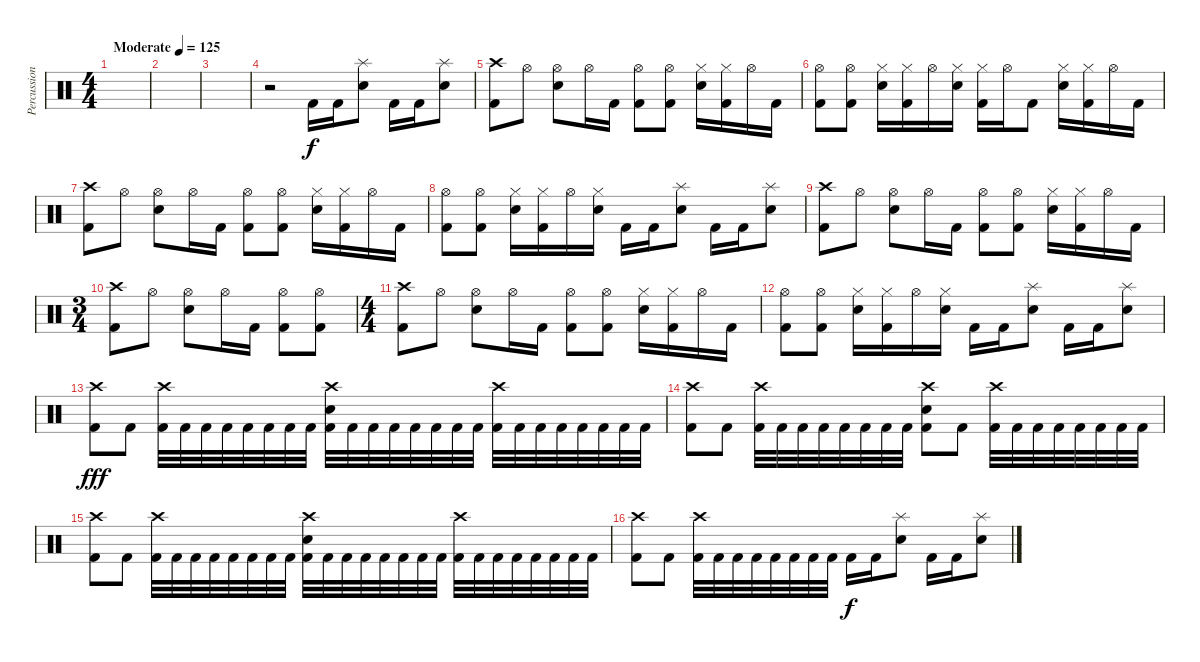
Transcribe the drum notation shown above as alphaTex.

\track ("Percussions" "Percussion") {instrument percussion}
\staff {score}
\articulation defaults
\ts (4 4)
\tempo (125 "Moderate")
\clef neutral
\ks c
|
|
|
r.2 "Kick (hit) 2".16 "Kick (hit) 2".16 ("Splash (hit)" "Electric Snare (hit)").8 "Kick (hit) 2".16 "Kick (hit) 2".16 ("Splash (hit)" "Electric Snare (hit)").8 |
("Crash high (hit)" "Kick (hit) 2").8 "Hi-Hat (open)".8 ("Hi-Hat (open)" "Electric Snare (hit)").8 "Hi-Hat (open)".16 "Kick (hit) 2".16 ("Hi-Hat (open)" "Kick (hit) 2").8 ("Hi-Hat (open)" "Kick (hit) 2").8 ("Hi-Hat (closed)" "Electric Snare (hit)").16 ("Hi-Hat (closed)" "Kick (hit) 2").16 "Hi-Hat (open)".16 "Kick (hit) 2".16 |
("Hi-Hat (open)" "Kick (hit) 2").8 ("Hi-Hat (open)" "Kick (hit) 2").8 ("Hi-Hat (closed)" "Electric Snare (hit)").16 ("Hi-Hat (closed)" "Kick (hit) 2").16 "Hi-Hat (open)".16 ("Hi-Hat (closed)" "Electric Snare (hit)").16 ("Hi-Hat (closed)" "Kick (hit) 2").16 "Hi-Hat (open)".16 "Kick (hit) 2".8 ("Hi-Hat (closed)" "Electric Snare (hit)").16 ("Hi-Hat (closed)" "Kick (hit) 2").16 "Hi-Hat (open)".16 "Kick (hit) 2".16 |
("Crash high (hit)" "Kick (hit) 2").8 "Hi-Hat (open)".8 ("Hi-Hat (open)" "Electric Snare (hit)").8 "Hi-Hat (open)".16 "Kick (hit) 2".16 ("Hi-Hat (open)" "Kick (hit) 2").8 ("Hi-Hat (open)" "Kick (hit) 2").8 ("Hi-Hat (closed)" "Electric Snare (hit)").16 ("Hi-Hat (closed)" "Kick (hit) 2").16 "Hi-Hat (open)".16 "Kick (hit) 2".16 |
("Hi-Hat (open)" "Kick (hit) 2").8 ("Hi-Hat (open)" "Kick (hit) 2").8 ("Hi-Hat (closed)" "Electric Snare (hit)").16 ("Hi-Hat (closed)" "Kick (hit) 2").16 "Hi-Hat (open)".16 ("Hi-Hat (closed)" "Electric Snare (hit)").16 "Kick (hit) 2".16 "Kick (hit) 2".16 ("Splash (hit)" "Electric Snare (hit)").8 "Kick (hit) 2".16 "Kick (hit) 2".16 ("Splash (hit)" "Electric Snare (hit)").8 |
("Crash high (hit)" "Kick (hit) 2").8 "Hi-Hat (open)".8 ("Hi-Hat (open)" "Electric Snare (hit)").8 "Hi-Hat (open)".16 "Kick (hit) 2".16 ("Hi-Hat (open)" "Kick (hit) 2").8 ("Hi-Hat (open)" "Kick (hit) 2").8 ("Hi-Hat (closed)" "Electric Snare (hit)").16 ("Hi-Hat (closed)" "Kick (hit) 2").16 "Hi-Hat (open)".16 "Kick (hit) 2".16 |
\ts (3 4)
("Crash high (hit)" "Kick (hit) 2").8 "Hi-Hat (open)".8 ("Hi-Hat (open)" "Electric Snare (hit)").8 "Hi-Hat (open)".16 "Kick (hit) 2".16 ("Hi-Hat (open)" "Kick (hit) 2").8 ("Hi-Hat (open)" "Kick (hit) 2").8 |
\ts (4 4)
("Crash high (hit)" "Kick (hit) 2").8 "Hi-Hat (open)".8 ("Hi-Hat (open)" "Electric Snare (hit)").8 "Hi-Hat (open)".16 "Kick (hit) 2".16 ("Hi-Hat (open)" "Kick (hit) 2").8 ("Hi-Hat (open)" "Kick (hit) 2").8 ("Hi-Hat (closed)" "Electric Snare (hit)").16 ("Hi-Hat (closed)" "Kick (hit) 2").16 "Hi-Hat (open)".16 "Kick (hit) 2".16 |
("Hi-Hat (open)" "Kick (hit) 2").8 ("Hi-Hat (open)" "Kick (hit) 2").8 ("Hi-Hat (closed)" "Electric Snare (hit)").16 ("Hi-Hat (closed)" "Kick (hit) 2").16 "Hi-Hat (open)".16 ("Hi-Hat (closed)" "Electric Snare (hit)").16 "Kick (hit) 2".16 "Kick (hit) 2".16 ("Splash (hit)" "Electric Snare (hit)").8 "Kick (hit) 2".16 "Kick (hit) 2".16 ("Splash (hit)" "Electric Snare (hit)").8 |
("Crash high (hit)" "Kick (hit) 2").8{dy fff} "Kick (hit) 2".8 ("Crash high (hit)" "Kick (hit) 2").32 "Kick (hit) 2".32 "Kick (hit) 2".32 "Kick (hit) 2".32 "Kick (hit) 2".32 "Kick (hit) 2".32 "Kick (hit) 2".32 "Kick (hit) 2".32 ("Crash high (hit)" "Electric Snare (hit)" "Kick (hit) 2").32 "Kick (hit) 2".32 "Kick (hit) 2".32 "Kick (hit) 2".32 "Kick (hit) 2".32 "Kick (hit) 2".32 "Kick (hit) 2".32 "Kick (hit) 2".32 ("Crash high (hit)" "Kick (hit) 2").32 "Kick (hit) 2".32 "Kick (hit) 2".32 "Kick (hit) 2".32 "Kick (hit) 2".32 "Kick (hit) 2".32 "Kick (hit) 2".32 "Kick (hit) 2".32 |
("Crash high (hit)" "Kick (hit) 2").8 "Kick (hit) 2".8 ("Crash high (hit)" "Kick (hit) 2").32 "Kick (hit) 2".32 "Kick (hit) 2".32 "Kick (hit) 2".32 "Kick (hit) 2".32 "Kick (hit) 2".32 "Kick (hit) 2".32 "Kick (hit) 2".32 ("Crash high (hit)" "Electric Snare (hit)" "Kick (hit) 2").8 "Kick (hit) 2".8 ("Crash high (hit)" "Kick (hit) 2").32 "Kick (hit) 2".32 "Kick (hit) 2".32 "Kick (hit) 2".32 "Kick (hit) 2".32 "Kick (hit) 2".32 "Kick (hit) 2".32 "Kick (hit) 2".32 |
("Crash high (hit)" "Kick (hit) 2").8 "Kick (hit) 2".8 ("Crash high (hit)" "Kick (hit) 2").32 "Kick (hit) 2".32 "Kick (hit) 2".32 "Kick (hit) 2".32 "Kick (hit) 2".32 "Kick (hit) 2".32 "Kick (hit) 2".32 "Kick (hit) 2".32 ("Crash high (hit)" "Electric Snare (hit)" "Kick (hit) 2").32 "Kick (hit) 2".32 "Kick (hit) 2".32 "Kick (hit) 2".32 "Kick (hit) 2".32 "Kick (hit) 2".32 "Kick (hit) 2".32 "Kick (hit) 2".32 ("Crash high (hit)" "Kick (hit) 2").32 "Kick (hit) 2".32 "Kick (hit) 2".32 "Kick (hit) 2".32 "Kick (hit) 2".32 "Kick (hit) 2".32 "Kick (hit) 2".32 "Kick (hit) 2".32 |
("Crash high (hit)" "Kick (hit) 2").8 "Kick (hit) 2".8 ("Crash high (hit)" "Kick (hit) 2").32 "Kick (hit) 2".32 "Kick (hit) 2".32 "Kick (hit) 2".32 "Kick (hit) 2".32 "Kick (hit) 2".32 "Kick (hit) 2".32 "Kick (hit) 2".32 "Kick (hit) 2".16{dy f} "Kick (hit) 2".16 ("Splash (hit)" "Electric Snare (hit)").8 "Kick (hit) 2".16 "Kick (hit) 2".16 ("Splash (hit)" "Electric Snare (hit)").8
